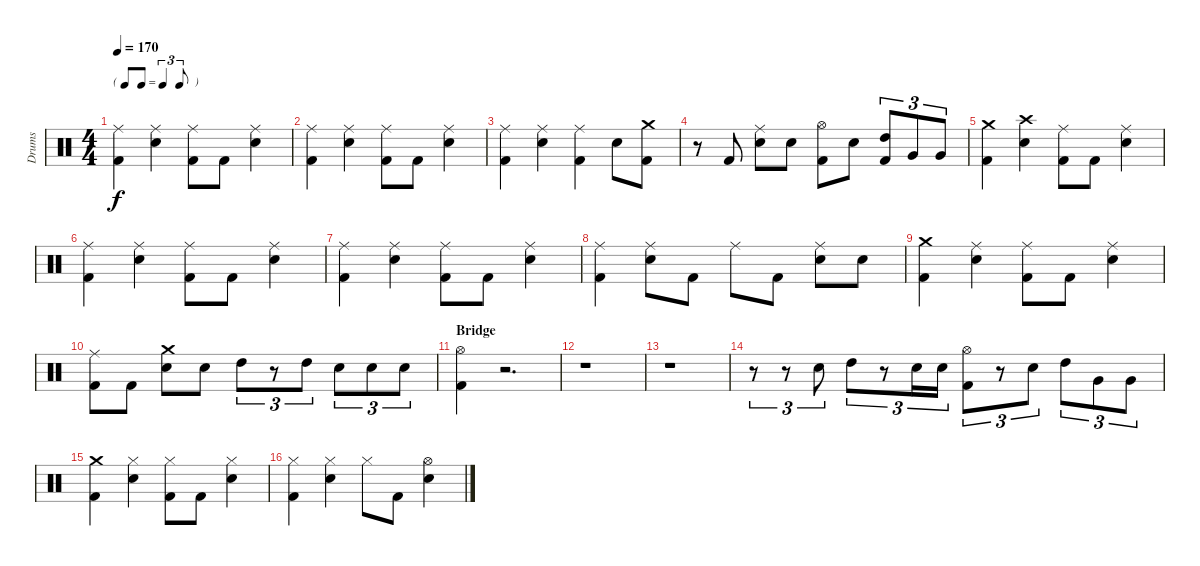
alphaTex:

\track ("Drums" "Drums") {instrument percussion}
\staff {score}
\articulation defaults
\ts (4 4)
\tf triplet8th
\tempo 170
\clef neutral
\ks c
("Ride (middle)" "Kick (hit) 2").4{dy f} ("Ride (middle)" "Snare (hit) 2").4 ("Ride (middle)" "Kick (hit) 2").8 "Kick (hit) 2".8 ("Ride (middle)" "Snare (hit) 2").4 |
("Ride (middle)" "Kick (hit) 2").4 ("Ride (middle)" "Snare (hit) 2").4 ("Ride (middle)" "Kick (hit) 2").8 "Kick (hit) 2".8 ("Ride (middle)" "Snare (hit) 2").4 |
("Ride (middle)" "Kick (hit) 2").4 ("Ride (middle)" "Snare (hit) 2").4 ("Ride (middle)" "Kick (hit) 2").4 "Snare (hit) 2".8 ("Crash medium (hit)" "Kick (hit) 2").8 |
r.8 "Kick (hit) 2".8 ("Ride (middle)" "Snare (hit) 2").8 "Snare (hit) 2".8 ("Hi-Hat (open)" "Kick (hit) 2").8 "Snare (hit) 2".8 ("High Tom (hit)" "Kick (hit) 2").8{tu (3 2)} "Very Low Tom (hit)".8{tu (3 2)} "Very Low Tom (hit)".8{tu (3 2)} |
("Crash medium (hit)" "Kick (hit) 2").4 ("Crash high (hit)" "Snare (hit) 2").4 ("Ride (middle)" "Kick (hit) 2").8 "Kick (hit) 2".8 ("Ride (middle)" "Snare (hit) 2").4 |
("Ride (middle)" "Kick (hit) 2").4 ("Ride (middle)" "Snare (hit) 2").4 ("Ride (middle)" "Kick (hit) 2").8 "Kick (hit) 2".8 ("Ride (middle)" "Snare (hit) 2").4 |
("Ride (middle)" "Kick (hit) 2").4 ("Ride (middle)" "Snare (hit) 2").4 ("Ride (middle)" "Kick (hit) 2").8 "Kick (hit) 2".8 ("Ride (middle)" "Snare (hit) 2").4 |
("Ride (middle)" "Kick (hit) 2").4 ("Ride (middle)" "Snare (hit) 2").8 "Kick (hit) 2".8 "Ride (middle)".8 "Kick (hit) 2".8 ("Ride (middle)" "Snare (hit) 2").8 "Snare (hit) 2".8 |
("Crash medium (hit)" "Kick (hit) 2").4 ("Ride (middle)" "Snare (hit) 2").4 ("Ride (middle)" "Kick (hit) 2").8 "Kick (hit) 2".8 ("Ride (middle)" "Snare (hit) 2").4 |
("Ride (middle)" "Kick (hit) 2").8 "Kick (hit) 2".8 ("Crash medium (hit)" "Snare (hit) 2").8 "Snare (hit) 2".8 "High Tom (hit)".8{tu (3 2)} r.8{tu (3 2)} "High Tom (hit)".8{tu (3 2)} "Snare (hit) 2".8{tu (3 2)} "Snare (hit) 2".8{tu (3 2)} "Snare (hit) 2".8{tu (3 2)} |
\section ("" "Bridge")
("Hi-Hat (open)" "Kick (hit) 2").4 r.2{d} |
r.1 |
r.1 |
r.8{tu (3 2)} r.8{tu (3 2)} "Snare (hit) 2".8{tu (3 2)} "High Tom (hit)".8{tu (3 2)} r.8{tu (3 2)} "Snare (hit) 2".16{tu (3 2)} "Snare (hit) 2".16{tu (3 2)} ("Hi-Hat (open)" "Kick (hit) 2").8{tu (3 2)} r.8{tu (3 2)} "Snare (hit) 2".8{tu (3 2)} "High Tom (hit)".8{tu (3 2)} "Very Low Tom (hit)".8{tu (3 2)} "Very Low Tom (hit)".8{tu (3 2)} |
("Crash medium (hit)" "Kick (hit) 2").4 ("Hi-Hat (closed)" "Snare (hit) 2").4 ("Hi-Hat (closed)" "Kick (hit) 2").8 "Kick (hit) 2".8 ("Hi-Hat (closed)" "Snare (hit) 2").4 |
("Hi-Hat (closed)" "Kick (hit) 2").4 ("Hi-Hat (closed)" "Snare (hit) 2").4 "Hi-Hat (closed)".8 "Kick (hit) 2".8 ("Hi-Hat (open)" "Snare (hit) 2").4
